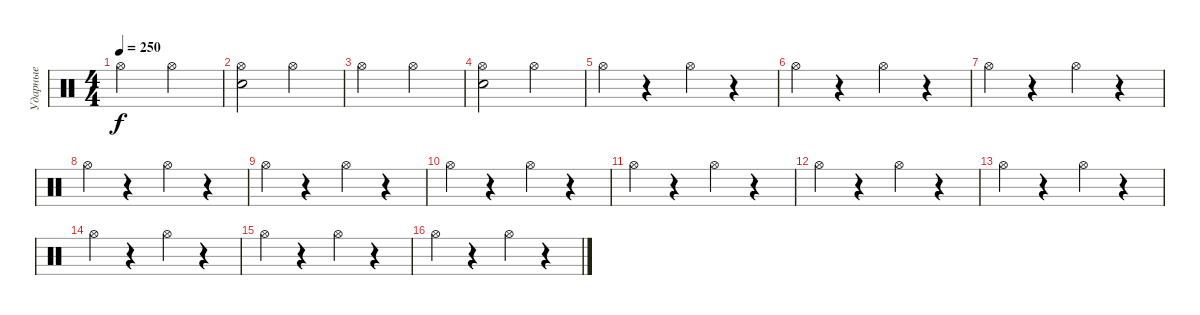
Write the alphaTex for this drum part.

\track ("Ударные" "Ударные") {instrument percussion}
\staff {score}
\articulation defaults
\ts (4 4)
\tempo 250
\clef neutral
\ks c "Hi-Hat (open)".2{dy f} "Hi-Hat (open)".2
|
("Snare (hit) 2" "Hi-Hat (open)").2 "Hi-Hat (open)".2 |
"Hi-Hat (open)".2 "Hi-Hat (open)".2 |
("Snare (hit) 2" "Hi-Hat (open)").2 "Hi-Hat (open)".2 |
"Hi-Hat (open)".4 r.4 "Hi-Hat (open)".4 r.4 |
"Hi-Hat (open)".4 r.4 "Hi-Hat (open)".4 r.4 |
"Hi-Hat (open)".4 r.4 "Hi-Hat (open)".4 r.4 |
"Hi-Hat (open)".4 r.4 "Hi-Hat (open)".4 r.4 |
"Hi-Hat (open)".4 r.4 "Hi-Hat (open)".4 r.4 |
"Hi-Hat (open)".4 r.4 "Hi-Hat (open)".4 r.4 |
"Hi-Hat (open)".4 r.4 "Hi-Hat (open)".4 r.4 |
"Hi-Hat (open)".4 r.4 "Hi-Hat (open)".4 r.4 |
"Hi-Hat (open)".4 r.4 "Hi-Hat (open)".4 r.4 |
"Hi-Hat (open)".4 r.4 "Hi-Hat (open)".4 r.4 |
"Hi-Hat (open)".4 r.4 "Hi-Hat (open)".4 r.4 |
"Hi-Hat (open)".4 r.4 "Hi-Hat (open)".4 r.4
